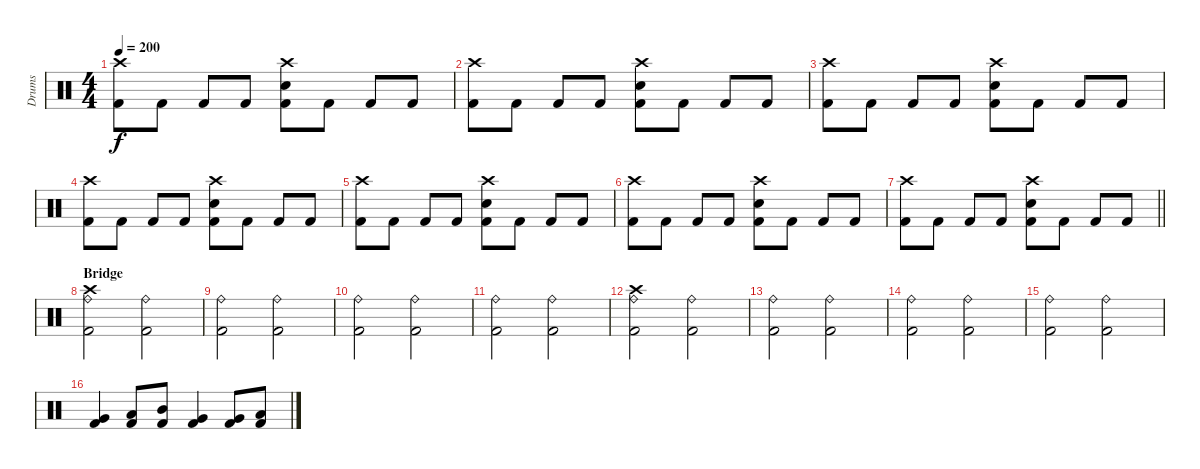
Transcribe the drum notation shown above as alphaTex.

\track ("Drums" "Drums") {instrument percussion}
\staff {score}
\articulation defaults
\ts (4 4)
\tempo 200
\clef neutral
\ks c
("Crash high (hit)" "Kick (hit) 2").8{dy f} "Kick (hit) 2".8 "Kick (hit) 2".8 "Kick (hit) 2".8 ("Crash high (hit)" "Electric Snare (hit)" "Kick (hit) 2").8 "Kick (hit) 2".8 "Kick (hit) 2".8 "Kick (hit) 2".8 |
("Crash high (hit)" "Kick (hit) 2").8 "Kick (hit) 2".8 "Kick (hit) 2".8 "Kick (hit) 2".8 ("Crash high (hit)" "Electric Snare (hit)" "Kick (hit) 2").8 "Kick (hit) 2".8 "Kick (hit) 2".8 "Kick (hit) 2".8 |
("Crash high (hit)" "Kick (hit) 2").8 "Kick (hit) 2".8 "Kick (hit) 2".8 "Kick (hit) 2".8 ("Crash high (hit)" "Electric Snare (hit)" "Kick (hit) 2").8 "Kick (hit) 2".8 "Kick (hit) 2".8 "Kick (hit) 2".8 |
("Crash high (hit)" "Kick (hit) 2").8 "Kick (hit) 2".8 "Kick (hit) 2".8 "Kick (hit) 2".8 ("Crash high (hit)" "Electric Snare (hit)" "Kick (hit) 2").8 "Kick (hit) 2".8 "Kick (hit) 2".8 "Kick (hit) 2".8 |
("Crash high (hit)" "Kick (hit) 2").8 "Kick (hit) 2".8 "Kick (hit) 2".8 "Kick (hit) 2".8 ("Crash high (hit)" "Electric Snare (hit)" "Kick (hit) 2").8 "Kick (hit) 2".8 "Kick (hit) 2".8 "Kick (hit) 2".8 |
("Crash high (hit)" "Kick (hit) 2").8 "Kick (hit) 2".8 "Kick (hit) 2".8 "Kick (hit) 2".8 ("Crash high (hit)" "Electric Snare (hit)" "Kick (hit) 2").8 "Kick (hit) 2".8 "Kick (hit) 2".8 "Kick (hit) 2".8 |
\barLineRight lightlight
("Crash high (hit)" "Kick (hit) 2").8 "Kick (hit) 2".8 "Kick (hit) 2".8 "Kick (hit) 2".8 ("Crash high (hit)" "Electric Snare (hit)" "Kick (hit) 2").8 "Kick (hit) 2".8 "Kick (hit) 2".8 "Kick (hit) 2".8 |
\section ("" "Bridge")
("Crash high (hit)" "Ride (bell)" "Kick (hit) 2").2 ("Ride (bell)" "Kick (hit) 2").2 |
("Ride (bell)" "Kick (hit) 2").2 ("Ride (bell)" "Kick (hit) 2").2 |
("Ride (bell)" "Kick (hit) 2").2 ("Ride (bell)" "Kick (hit) 2").2 |
("Ride (bell)" "Kick (hit) 2").2 ("Ride (bell)" "Kick (hit) 2").2 |
("Crash high (hit)" "Ride (bell)" "Kick (hit) 2").2 ("Ride (bell)" "Kick (hit) 2").2 |
("Ride (bell)" "Kick (hit) 2").2 ("Ride (bell)" "Kick (hit) 2").2 |
("Ride (bell)" "Kick (hit) 2").2 ("Ride (bell)" "Kick (hit) 2").2 |
("Ride (bell)" "Kick (hit) 2").2 ("Ride (bell)" "Kick (hit) 2").2 |
("Very Low Tom (hit)" "Kick (hit) 2").4 ("Low Tom (hit)" "Kick (hit) 2").8 ("Mid Tom (hit)" "Kick (hit) 2").8 ("Very Low Tom (hit)" "Kick (hit) 2").4 ("Very Low Tom (hit)" "Kick (hit) 2").8 ("Low Tom (hit)" "Kick (hit) 2").8
